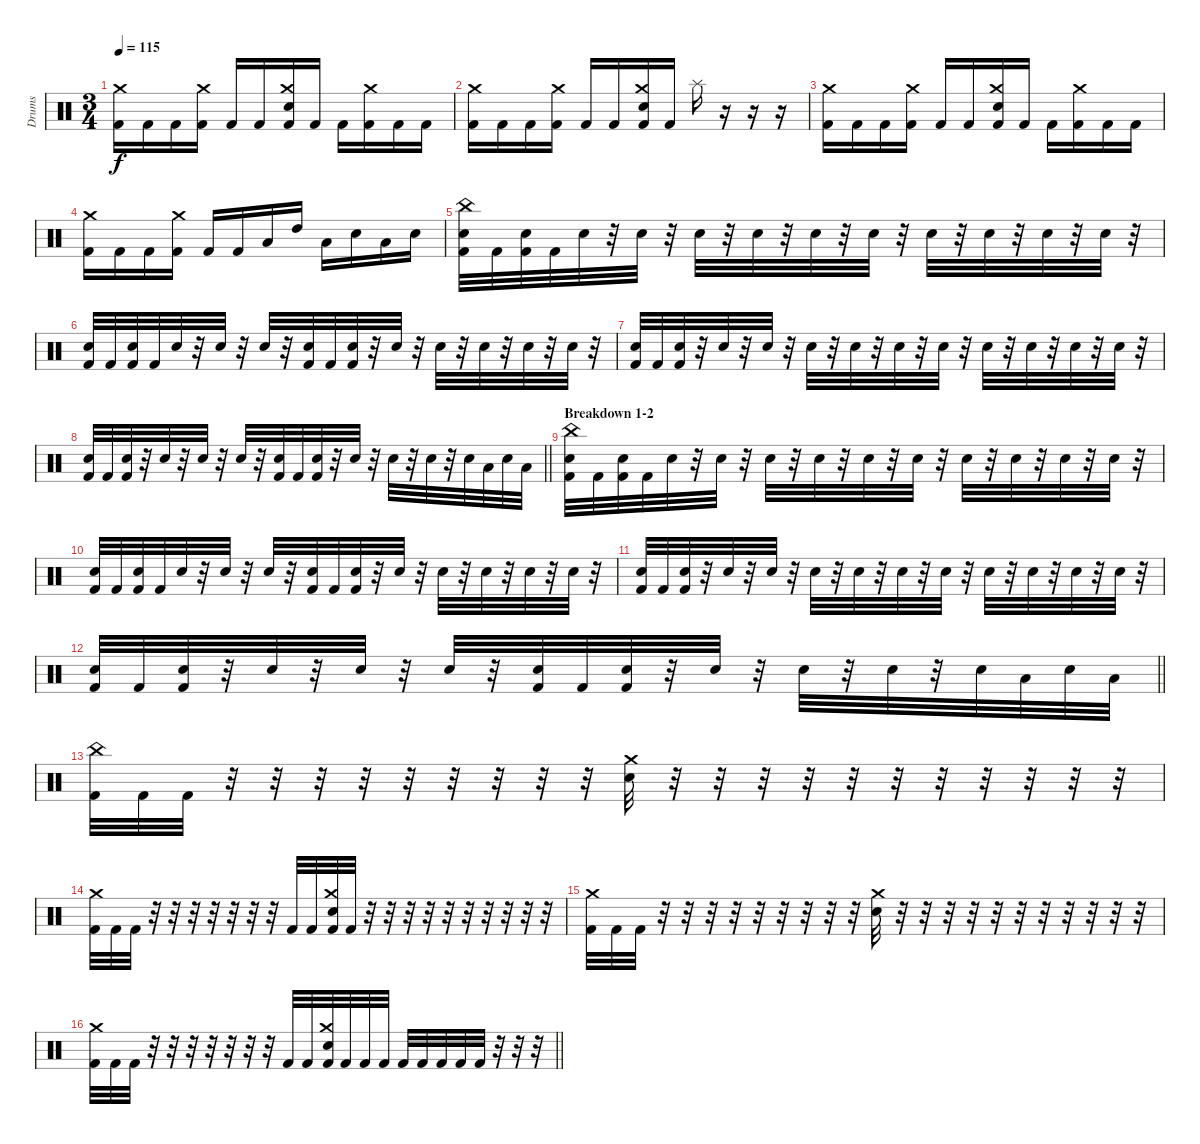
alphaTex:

\track ("Drums" "Drums") {instrument percussion}
\staff {score}
\articulation defaults
\ts (3 4)
\tempo 115
\clef neutral
\ks c
("Kick (hit) 2" "Crash medium (hit)").16{dy f} "Kick (hit) 2".16 "Kick (hit) 2".16 ("Kick (hit) 2" "Crash medium (hit)").16 "Kick (hit) 2".16 "Kick (hit) 2".16 ("Kick (hit) 2" "Electric Snare (hit)" "Crash medium (hit)").16 "Kick (hit) 2".16 "Kick (hit) 2".16 ("Kick (hit) 2" "Crash medium (hit)").16 "Kick (hit) 2".16 "Kick (hit) 2".16 |
("Kick (hit) 2" "Crash medium (hit)").16 "Kick (hit) 2".16 "Kick (hit) 2".16 ("Kick (hit) 2" "Crash medium (hit)").16 "Kick (hit) 2".16 "Kick (hit) 2".16 ("Kick (hit) 2" "Electric Snare (hit)" "Crash medium (hit)").16 "Kick (hit) 2".16 "Splash (hit)".16 r.16 r.16 r.16 |
("Kick (hit) 2" "Crash medium (hit)").16 "Kick (hit) 2".16 "Kick (hit) 2".16 ("Kick (hit) 2" "Crash medium (hit)").16 "Kick (hit) 2".16 "Kick (hit) 2".16 ("Kick (hit) 2" "Electric Snare (hit)" "Crash medium (hit)").16 "Kick (hit) 2".16 "Kick (hit) 2".16 ("Kick (hit) 2" "Crash medium (hit)").16 "Kick (hit) 2".16 "Kick (hit) 2".16 |
("Kick (hit) 2" "Crash medium (hit)").16 "Kick (hit) 2".16 "Kick (hit) 2".16 ("Kick (hit) 2" "Crash medium (hit)").16 "Kick (hit) 2".16 "Kick (hit) 2".16 "Low Tom (hit)".16 "High Tom (hit)".16 "Low Tom (hit)".16 "Electric Snare (hit)".16 "Low Tom (hit)".16 "Electric Snare (hit)".16 |
("Kick (hit) 2" "Electric Snare (hit)" "China (hit)").32 "Kick (hit) 2".32 ("Kick (hit) 2" "Electric Snare (hit)").32 "Kick (hit) 2".32 "Electric Snare (hit)".32 r.32 "Electric Snare (hit)".32 r.32 "Electric Snare (hit)".32 r.32 "Electric Snare (hit)".32 r.32 "Electric Snare (hit)".32 r.32 "Electric Snare (hit)".32 r.32 "Electric Snare (hit)".32 r.32 "Electric Snare (hit)".32 r.32 "Electric Snare (hit)".32 r.32 "Electric Snare (hit)".32 r.32 |
("Kick (hit) 2" "Electric Snare (hit)").32 "Kick (hit) 2".32 ("Kick (hit) 2" "Electric Snare (hit)").32 "Kick (hit) 2".32 "Electric Snare (hit)".32 r.32 "Electric Snare (hit)".32 r.32 "Electric Snare (hit)".32 r.32 ("Kick (hit) 2" "Electric Snare (hit)").32 "Kick (hit) 2".32 ("Kick (hit) 2" "Electric Snare (hit)").32 r.32 "Electric Snare (hit)".32 r.32 "Electric Snare (hit)".32 r.32 "Electric Snare (hit)".32 r.32 "Electric Snare (hit)".32 r.32 "Electric Snare (hit)".32 r.32 |
("Kick (hit) 2" "Electric Snare (hit)").32 "Kick (hit) 2".32 ("Kick (hit) 2" "Electric Snare (hit)").32 r.32 "Electric Snare (hit)".32 r.32 "Electric Snare (hit)".32 r.32 "Electric Snare (hit)".32 r.32 "Electric Snare (hit)".32 r.32 "Electric Snare (hit)".32 r.32 "Electric Snare (hit)".32 r.32 "Electric Snare (hit)".32 r.32 "Electric Snare (hit)".32 r.32 "Electric Snare (hit)".32 r.32 "Electric Snare (hit)".32 r.32 |
\barLineRight lightlight
("Kick (hit) 2" "Electric Snare (hit)").32 "Kick (hit) 2".32 ("Kick (hit) 2" "Electric Snare (hit)").32 r.32 "Electric Snare (hit)".32 r.32 "Electric Snare (hit)".32 r.32 "Electric Snare (hit)".32 r.32 ("Kick (hit) 2" "Electric Snare (hit)").32 "Kick (hit) 2".32 ("Kick (hit) 2" "Electric Snare (hit)").32 r.32 "Electric Snare (hit)".32 r.32 "Electric Snare (hit)".32 r.32 "Electric Snare (hit)".32 r.32 "Electric Snare (hit)".32 "Low Floor Tom (hit)".32 "Electric Snare (hit)".32 "Low Floor Tom (hit)".32 |
\section ("" "Breakdown 1-2")
("Kick (hit) 2" "Electric Snare (hit)" "China (hit)").32 "Kick (hit) 2".32 ("Kick (hit) 2" "Electric Snare (hit)").32 "Kick (hit) 2".32 "Electric Snare (hit)".32 r.32 "Electric Snare (hit)".32 r.32 "Electric Snare (hit)".32 r.32 "Electric Snare (hit)".32 r.32 "Electric Snare (hit)".32 r.32 "Electric Snare (hit)".32 r.32 "Electric Snare (hit)".32 r.32 "Electric Snare (hit)".32 r.32 "Electric Snare (hit)".32 r.32 "Electric Snare (hit)".32 r.32 |
("Kick (hit) 2" "Electric Snare (hit)").32 "Kick (hit) 2".32 ("Kick (hit) 2" "Electric Snare (hit)").32 "Kick (hit) 2".32 "Electric Snare (hit)".32 r.32 "Electric Snare (hit)".32 r.32 "Electric Snare (hit)".32 r.32 ("Kick (hit) 2" "Electric Snare (hit)").32 "Kick (hit) 2".32 ("Kick (hit) 2" "Electric Snare (hit)").32 r.32 "Electric Snare (hit)".32 r.32 "Electric Snare (hit)".32 r.32 "Electric Snare (hit)".32 r.32 "Electric Snare (hit)".32 r.32 "Electric Snare (hit)".32 r.32 |
("Kick (hit) 2" "Electric Snare (hit)").32 "Kick (hit) 2".32 ("Kick (hit) 2" "Electric Snare (hit)").32 r.32 "Electric Snare (hit)".32 r.32 "Electric Snare (hit)".32 r.32 "Electric Snare (hit)".32 r.32 "Electric Snare (hit)".32 r.32 "Electric Snare (hit)".32 r.32 "Electric Snare (hit)".32 r.32 "Electric Snare (hit)".32 r.32 "Electric Snare (hit)".32 r.32 "Electric Snare (hit)".32 r.32 "Electric Snare (hit)".32 r.32 |
\barLineRight lightlight
("Kick (hit) 2" "Electric Snare (hit)").32 "Kick (hit) 2".32 ("Kick (hit) 2" "Electric Snare (hit)").32 r.32 "Electric Snare (hit)".32 r.32 "Electric Snare (hit)".32 r.32 "Electric Snare (hit)".32 r.32 ("Kick (hit) 2" "Electric Snare (hit)").32 "Kick (hit) 2".32 ("Kick (hit) 2" "Electric Snare (hit)").32 r.32 "Electric Snare (hit)".32 r.32 "Electric Snare (hit)".32 r.32 "Electric Snare (hit)".32 r.32 "Electric Snare (hit)".32 "Low Floor Tom (hit)".32 "Electric Snare (hit)".32 "Low Floor Tom (hit)".32 |
("China (hit)" "Kick (hit) 2").32 "Kick (hit) 2".32 "Kick (hit) 2".32 r.32 r.32 r.32 r.32 r.32 r.32 r.32 r.32 r.32 ("Crash medium (hit)" "Electric Snare (hit)").32 r.32 r.32 r.32 r.32 r.32 r.32 r.32 r.32 r.32 r.32 r.32 |
("Crash medium (hit)" "Kick (hit) 2").32 "Kick (hit) 2".32 "Kick (hit) 2".32 r.32 r.32 r.32 r.32 r.32 r.32 r.32 "Kick (hit) 2".32 "Kick (hit) 2".32 ("Crash medium (hit)" "Electric Snare (hit)" "Kick (hit) 2").32 "Kick (hit) 2".32 r.32 r.32 r.32 r.32 r.32 r.32 r.32 r.32 r.32 r.32 |
("Crash medium (hit)" "Kick (hit) 2").32 "Kick (hit) 2".32 "Kick (hit) 2".32 r.32 r.32 r.32 r.32 r.32 r.32 r.32 r.32 r.32 ("Crash medium (hit)" "Electric Snare (hit)").32 r.32 r.32 r.32 r.32 r.32 r.32 r.32 r.32 r.32 r.32 r.32 |
\barLineRight lightlight
("Crash medium (hit)" "Kick (hit) 2").32 "Kick (hit) 2".32 "Kick (hit) 2".32 r.32 r.32 r.32 r.32 r.32 r.32 r.32 "Kick (hit) 2".32 "Kick (hit) 2".32 ("Crash medium (hit)" "Electric Snare (hit)" "Kick (hit) 2").32 "Kick (hit) 2".32 "Kick (hit) 2".32 "Kick (hit) 2".32 "Kick (hit) 2".32 "Kick (hit) 2".32 "Kick (hit) 2".32 "Kick (hit) 2".32 "Kick (hit) 2".32 r.32 r.32 r.32
